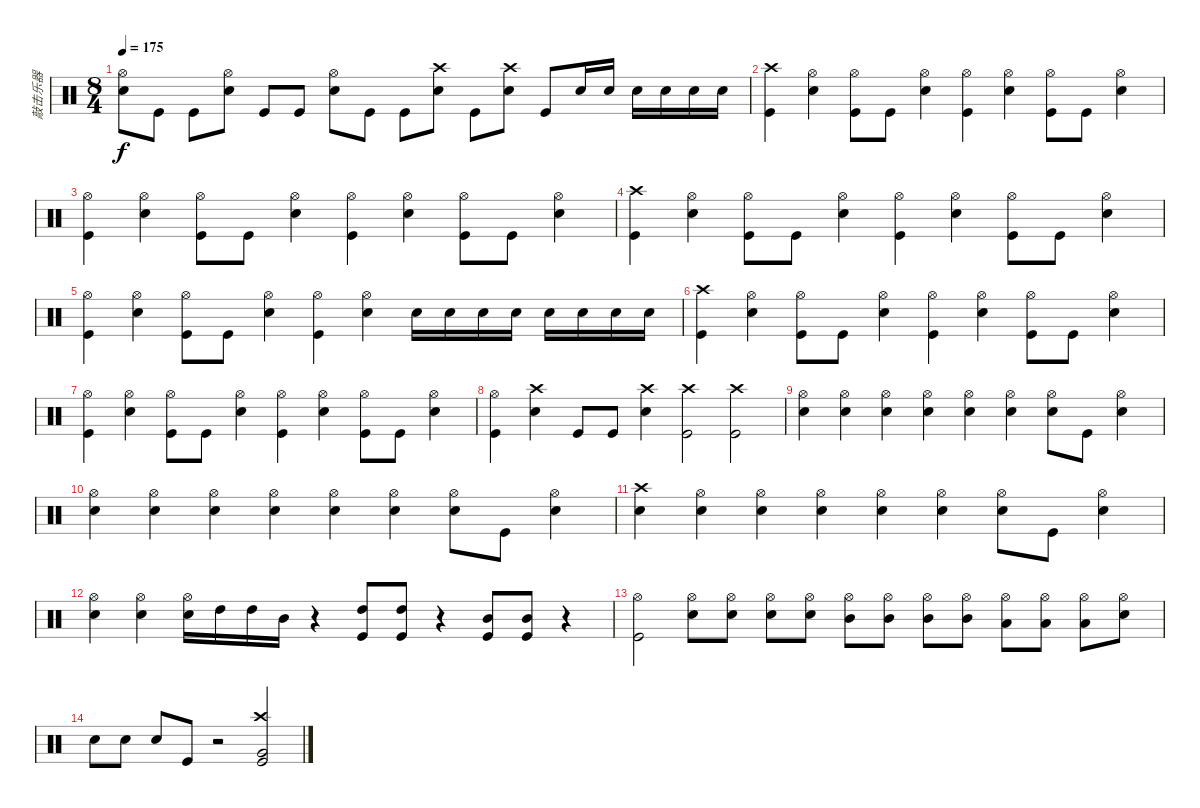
\track ("敲击乐器" "敲击乐器") {instrument percussion}
\staff {score}
\articulation defaults
\ts (8 4)
\tempo 175
\clef neutral
\ks c
("Hi-Hat (open)" "Electric Snare (hit)").8{dy f} "Kick (hit)".8 "Kick (hit)".8 ("Hi-Hat (open)" "Electric Snare (hit)").8 "Kick (hit)".8 "Kick (hit)".8 ("Hi-Hat (open)" "Electric Snare (hit)").8 "Kick (hit)".8 "Kick (hit)".8 ("Crash high (hit)" "Electric Snare (hit)").8 "Kick (hit)".8 ("Crash high (hit)" "Electric Snare (hit)").8 "Kick (hit)".8 "Electric Snare (hit)".16 "Electric Snare (hit)".16 "Electric Snare (hit)".16 "Electric Snare (hit)".16 "Electric Snare (hit)".16 "Electric Snare (hit)".16 |
("Crash high (hit)" "Kick (hit)").4 ("Hi-Hat (open)" "Electric Snare (hit)").4 ("Hi-Hat (open)" "Kick (hit)").8 "Kick (hit)".8 ("Hi-Hat (open)" "Electric Snare (hit)").4 ("Hi-Hat (open)" "Kick (hit)").4 ("Hi-Hat (open)" "Electric Snare (hit)").4 ("Hi-Hat (open)" "Kick (hit)").8 "Kick (hit)".8 ("Hi-Hat (open)" "Electric Snare (hit)").4 |
("Hi-Hat (open)" "Kick (hit)").4 ("Hi-Hat (open)" "Electric Snare (hit)").4 ("Hi-Hat (open)" "Kick (hit)").8 "Kick (hit)".8 ("Hi-Hat (open)" "Electric Snare (hit)").4 ("Hi-Hat (open)" "Kick (hit)").4 ("Hi-Hat (open)" "Electric Snare (hit)").4 ("Hi-Hat (open)" "Kick (hit)").8 "Kick (hit)".8 ("Hi-Hat (open)" "Electric Snare (hit)").4 |
("Crash high (hit)" "Kick (hit)").4 ("Hi-Hat (open)" "Electric Snare (hit)").4 ("Hi-Hat (open)" "Kick (hit)").8 "Kick (hit)".8 ("Hi-Hat (open)" "Electric Snare (hit)").4 ("Hi-Hat (open)" "Kick (hit)").4 ("Hi-Hat (open)" "Electric Snare (hit)").4 ("Hi-Hat (open)" "Kick (hit)").8 "Kick (hit)".8 ("Hi-Hat (open)" "Electric Snare (hit)").4 |
("Hi-Hat (open)" "Kick (hit)").4 ("Hi-Hat (open)" "Electric Snare (hit)").4 ("Hi-Hat (open)" "Kick (hit)").8 "Kick (hit)".8 ("Hi-Hat (open)" "Electric Snare (hit)").4 ("Hi-Hat (open)" "Kick (hit)").4 ("Hi-Hat (open)" "Electric Snare (hit)").4 "Electric Snare (hit)".16 "Electric Snare (hit)".16 "Electric Snare (hit)".16 "Electric Snare (hit)".16 "Electric Snare (hit)".16 "Electric Snare (hit)".16 "Electric Snare (hit)".16 "Electric Snare (hit)".16 |
("Crash high (hit)" "Kick (hit)").4 ("Hi-Hat (open)" "Electric Snare (hit)").4 ("Hi-Hat (open)" "Kick (hit)").8 "Kick (hit)".8 ("Hi-Hat (open)" "Electric Snare (hit)").4 ("Hi-Hat (open)" "Kick (hit)").4 ("Hi-Hat (open)" "Electric Snare (hit)").4 ("Hi-Hat (open)" "Kick (hit)").8 "Kick (hit)".8 ("Hi-Hat (open)" "Electric Snare (hit)").4 |
("Hi-Hat (open)" "Kick (hit)").4 ("Hi-Hat (open)" "Electric Snare (hit)").4 ("Hi-Hat (open)" "Kick (hit)").8 "Kick (hit)".8 ("Hi-Hat (open)" "Electric Snare (hit)").4 ("Hi-Hat (open)" "Kick (hit)").4 ("Hi-Hat (open)" "Electric Snare (hit)").4 ("Hi-Hat (open)" "Kick (hit)").8 "Kick (hit)".8 ("Hi-Hat (open)" "Electric Snare (hit)").4 |
("Hi-Hat (open)" "Kick (hit)").4 ("Crash high (hit)" "Electric Snare (hit)").4 "Kick (hit)".8 "Kick (hit)".8 ("Crash high (hit)" "Electric Snare (hit)").4 ("Crash high (hit)" "Kick (hit)").2 ("Crash high (hit)" "Kick (hit)").2 |
("Hi-Hat (open)" "Electric Snare (hit)").4 ("Hi-Hat (open)" "Electric Snare (hit)").4 ("Hi-Hat (open)" "Electric Snare (hit)").4 ("Hi-Hat (open)" "Electric Snare (hit)").4 ("Hi-Hat (open)" "Electric Snare (hit)").4 ("Hi-Hat (open)" "Electric Snare (hit)").4 ("Hi-Hat (open)" "Electric Snare (hit)").8 "Kick (hit)".8 ("Hi-Hat (open)" "Electric Snare (hit)").4 |
("Hi-Hat (open)" "Electric Snare (hit)").4 ("Hi-Hat (open)" "Electric Snare (hit)").4 ("Hi-Hat (open)" "Electric Snare (hit)").4 ("Hi-Hat (open)" "Electric Snare (hit)").4 ("Hi-Hat (open)" "Electric Snare (hit)").4 ("Hi-Hat (open)" "Electric Snare (hit)").4 ("Hi-Hat (open)" "Electric Snare (hit)").8 "Kick (hit)".8 ("Hi-Hat (open)" "Electric Snare (hit)").4 |
("Crash high (hit)" "Electric Snare (hit)").4 ("Hi-Hat (open)" "Electric Snare (hit)").4 ("Hi-Hat (open)" "Electric Snare (hit)").4 ("Hi-Hat (open)" "Electric Snare (hit)").4 ("Hi-Hat (open)" "Electric Snare (hit)").4 ("Hi-Hat (open)" "Electric Snare (hit)").4 ("Hi-Hat (open)" "Electric Snare (hit)").8 "Kick (hit)".8 ("Hi-Hat (open)" "Electric Snare (hit)").4 |
("Hi-Hat (open)" "Electric Snare (hit)").4 ("Hi-Hat (open)" "Electric Snare (hit)").4 ("Hi-Hat (open)" "Electric Snare (hit)").16 "High Tom (hit)".16 "High Tom (hit)".16 "Mid Tom (hit)".16 r.4 ("High Tom (hit)" "Kick (hit)").8 ("High Tom (hit)" "Kick (hit)").8 r.4 ("Mid Tom (hit)" "Kick (hit)").8 ("Mid Tom (hit)" "Kick (hit)").8 r.4 |
("Hi-Hat (open)" "Kick (hit)").2 ("Hi-Hat (open)" "Electric Snare (hit)").8 ("Hi-Hat (open)" "Electric Snare (hit)").8 ("Hi-Hat (open)" "Electric Snare (hit)").8 ("Hi-Hat (open)" "Electric Snare (hit)").8 ("Hi-Hat (open)" "Mid Tom (hit)").8 ("Hi-Hat (open)" "Mid Tom (hit)").8 ("Hi-Hat (open)" "Mid Tom (hit)").8 ("Hi-Hat (open)" "Mid Tom (hit)").8 ("Hi-Hat (open)" "Low Tom (hit)").8 ("Hi-Hat (open)" "Low Tom (hit)").8 ("Hi-Hat (open)" "Low Tom (hit)").8 ("Hi-Hat (open)" "Electric Snare (hit)").8 |
"Electric Snare (hit)".8 "Electric Snare (hit)".8 "Electric Snare (hit)".8 "Kick (hit)".8 r.2 ("Crash high (hit)" "Very Low Tom (hit)" "Kick (hit)").2
